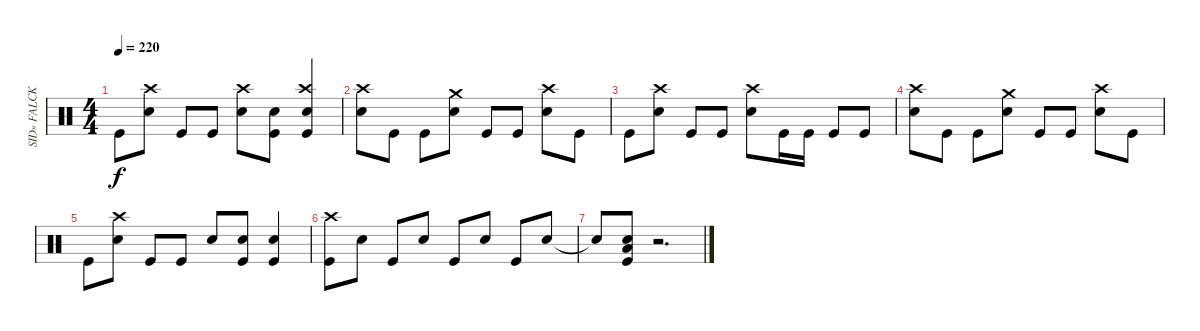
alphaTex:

\track ("SID» FALCK- Drums " "SID» FALCK") {instrument percussion}
\staff {score}
\articulation defaults
\ts (4 4)
\tempo 220
\clef neutral
\ks c "Kick (hit)".8{dy f}
("Crash high (hit)" "Electric Snare (hit)").8 "Kick (hit)".8 "Kick (hit)".8 ("Crash high (hit)" "Electric Snare (hit)").8 ("Electric Snare (hit)" "Kick (hit)").8 ("Crash high (hit)" "Electric Snare (hit)" "Kick (hit)").4 |
("Crash high (hit)" "Electric Snare (hit)").8 "Kick (hit)".8 "Kick (hit)".8 ("Crash medium (hit)" "Electric Snare (hit)").8 "Kick (hit)".8 "Kick (hit)".8 ("Crash high (hit)" "Electric Snare (hit)").8 "Kick (hit)".8 |
"Kick (hit)".8 ("Crash high (hit)" "Electric Snare (hit)").8 "Kick (hit)".8 "Kick (hit)".8 ("Crash high (hit)" "Electric Snare (hit)").8 "Kick (hit)".16 "Kick (hit)".16 "Kick (hit)".8 "Kick (hit)".8 |
("Crash high (hit)" "Electric Snare (hit)").8 "Kick (hit)".8 "Kick (hit)".8 ("Crash medium (hit)" "Electric Snare (hit)").8 "Kick (hit)".8 "Kick (hit)".8 ("Crash high (hit)" "Electric Snare (hit)").8 "Kick (hit)".8 |
"Kick (hit)".8 ("Crash high (hit)" "Electric Snare (hit)").8 "Kick (hit)".8 "Kick (hit)".8 "Electric Snare (hit)".8 ("Electric Snare (hit)" "Kick (hit)").8 ("Electric Snare (hit)" "Kick (hit)").4 |
("Crash high (hit)" "Kick (hit)").8 "Electric Snare (hit)".8 "Kick (hit)".8 "Electric Snare (hit)".8 "Kick (hit)".8 "Electric Snare (hit)".8 "Kick (hit)".8 "Electric Snare (hit)".8 |
"Snare (hit)"{t}.8 ("Low Tom (hit)" "Electric Snare (hit)" "Kick (hit)").8 r.2{d}
